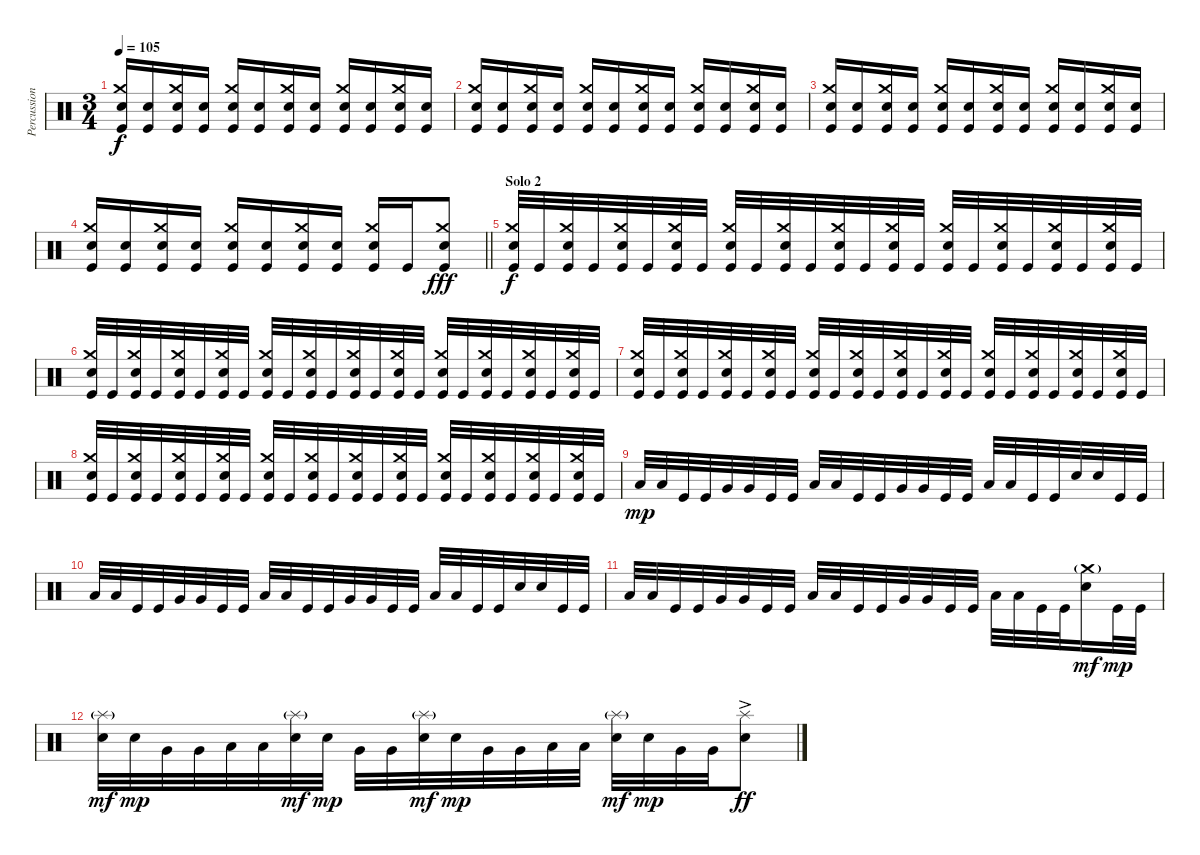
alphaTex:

\track ("Percussion" "Percussion") {instrument percussion}
\staff {score}
\articulation defaults
\ts (3 4)
\tempo 105
\clef neutral
\ks c
("Kick (hit)" "Crash medium (hit)" "Snare (hit) 2").16{dy f} ("Kick (hit)" "Snare (hit) 2").16 ("Kick (hit)" "Crash medium (hit)" "Snare (hit) 2").16 ("Kick (hit)" "Snare (hit) 2").16 ("Kick (hit)" "Crash medium (hit)" "Snare (hit) 2").16 ("Kick (hit)" "Snare (hit) 2").16 ("Kick (hit)" "Crash medium (hit)" "Snare (hit) 2").16 ("Kick (hit)" "Snare (hit) 2").16 ("Kick (hit)" "Crash medium (hit)" "Snare (hit) 2").16 ("Kick (hit)" "Snare (hit) 2").16 ("Kick (hit)" "Crash medium (hit)" "Snare (hit) 2").16 ("Kick (hit)" "Snare (hit) 2").16 |
("Kick (hit)" "Crash medium (hit)" "Snare (hit) 2").16 ("Kick (hit)" "Snare (hit) 2").16 ("Kick (hit)" "Crash medium (hit)" "Snare (hit) 2").16 ("Kick (hit)" "Snare (hit) 2").16 ("Kick (hit)" "Crash medium (hit)" "Snare (hit) 2").16 ("Kick (hit)" "Snare (hit) 2").16 ("Kick (hit)" "Crash medium (hit)" "Snare (hit) 2").16 ("Kick (hit)" "Snare (hit) 2").16 ("Kick (hit)" "Crash medium (hit)" "Snare (hit) 2").16 ("Kick (hit)" "Snare (hit) 2").16 ("Kick (hit)" "Crash medium (hit)" "Snare (hit) 2").16 ("Kick (hit)" "Snare (hit) 2").16 |
("Kick (hit)" "Crash medium (hit)" "Snare (hit) 2").16 ("Kick (hit)" "Snare (hit) 2").16 ("Kick (hit)" "Crash medium (hit)" "Snare (hit) 2").16 ("Kick (hit)" "Snare (hit) 2").16 ("Kick (hit)" "Crash medium (hit)" "Snare (hit) 2").16 ("Kick (hit)" "Snare (hit) 2").16 ("Kick (hit)" "Crash medium (hit)" "Snare (hit) 2").16 ("Kick (hit)" "Snare (hit) 2").16 ("Kick (hit)" "Crash medium (hit)" "Snare (hit) 2").16 ("Kick (hit)" "Snare (hit) 2").16 ("Kick (hit)" "Crash medium (hit)" "Snare (hit) 2").16 ("Kick (hit)" "Snare (hit) 2").16 |
\barLineRight lightlight
("Kick (hit)" "Crash medium (hit)" "Snare (hit) 2").16 ("Kick (hit)" "Snare (hit) 2").16 ("Kick (hit)" "Crash medium (hit)" "Snare (hit) 2").16 ("Kick (hit)" "Snare (hit) 2").16 ("Kick (hit)" "Crash medium (hit)" "Snare (hit) 2").16 ("Kick (hit)" "Snare (hit) 2").16 ("Kick (hit)" "Crash medium (hit)" "Snare (hit) 2").16 ("Kick (hit)" "Snare (hit) 2").16 ("Kick (hit)" "Crash medium (hit)" "Snare (hit) 2").16 "Kick (hit)".16 ("Kick (hit)" "Crash medium (hit)" "Snare (hit) 2").8{dy fff} |
\section ("" "Solo 2")
("Kick (hit)" "Snare (hit) 2" "Crash medium (hit)").32{dy f} "Kick (hit)".32 ("Kick (hit)" "Snare (hit) 2" "Crash medium (hit)").32 "Kick (hit)".32 ("Kick (hit)" "Snare (hit) 2" "Crash medium (hit)").32 "Kick (hit)".32 ("Kick (hit)" "Snare (hit) 2" "Crash medium (hit)").32 "Kick (hit)".32 ("Kick (hit)" "Snare (hit) 2" "Crash medium (hit)").32 "Kick (hit)".32 ("Kick (hit)" "Snare (hit) 2" "Crash medium (hit)").32 "Kick (hit)".32 ("Kick (hit)" "Snare (hit) 2" "Crash medium (hit)").32 "Kick (hit)".32 ("Kick (hit)" "Snare (hit) 2" "Crash medium (hit)").32 "Kick (hit)".32 ("Kick (hit)" "Snare (hit) 2" "Crash medium (hit)").32 "Kick (hit)".32 ("Kick (hit)" "Snare (hit) 2" "Crash medium (hit)").32 "Kick (hit)".32 ("Kick (hit)" "Snare (hit) 2" "Crash medium (hit)").32 "Kick (hit)".32 ("Kick (hit)" "Snare (hit) 2" "Crash medium (hit)").32 "Kick (hit)".32 |
("Kick (hit)" "Snare (hit) 2" "Crash medium (hit)").32 "Kick (hit)".32 ("Kick (hit)" "Snare (hit) 2" "Crash medium (hit)").32 "Kick (hit)".32 ("Kick (hit)" "Snare (hit) 2" "Crash medium (hit)").32 "Kick (hit)".32 ("Kick (hit)" "Snare (hit) 2" "Crash medium (hit)").32 "Kick (hit)".32 ("Kick (hit)" "Snare (hit) 2" "Crash medium (hit)").32 "Kick (hit)".32 ("Kick (hit)" "Snare (hit) 2" "Crash medium (hit)").32 "Kick (hit)".32 ("Kick (hit)" "Snare (hit) 2" "Crash medium (hit)").32 "Kick (hit)".32 ("Kick (hit)" "Snare (hit) 2" "Crash medium (hit)").32 "Kick (hit)".32 ("Kick (hit)" "Snare (hit) 2" "Crash medium (hit)").32 "Kick (hit)".32 ("Kick (hit)" "Snare (hit) 2" "Crash medium (hit)").32 "Kick (hit)".32 ("Kick (hit)" "Snare (hit) 2" "Crash medium (hit)").32 "Kick (hit)".32 ("Kick (hit)" "Snare (hit) 2" "Crash medium (hit)").32 "Kick (hit)".32 |
("Kick (hit)" "Snare (hit) 2" "Crash medium (hit)").32 "Kick (hit)".32 ("Kick (hit)" "Snare (hit) 2" "Crash medium (hit)").32 "Kick (hit)".32 ("Kick (hit)" "Snare (hit) 2" "Crash medium (hit)").32 "Kick (hit)".32 ("Kick (hit)" "Snare (hit) 2" "Crash medium (hit)").32 "Kick (hit)".32 ("Kick (hit)" "Snare (hit) 2" "Crash medium (hit)").32 "Kick (hit)".32 ("Kick (hit)" "Snare (hit) 2" "Crash medium (hit)").32 "Kick (hit)".32 ("Kick (hit)" "Snare (hit) 2" "Crash medium (hit)").32 "Kick (hit)".32 ("Kick (hit)" "Snare (hit) 2" "Crash medium (hit)").32 "Kick (hit)".32 ("Kick (hit)" "Snare (hit) 2" "Crash medium (hit)").32 "Kick (hit)".32 ("Kick (hit)" "Snare (hit) 2" "Crash medium (hit)").32 "Kick (hit)".32 ("Kick (hit)" "Snare (hit) 2" "Crash medium (hit)").32 "Kick (hit)".32 ("Kick (hit)" "Snare (hit) 2" "Crash medium (hit)").32 "Kick (hit)".32 |
("Kick (hit)" "Snare (hit) 2" "Crash medium (hit)").32 "Kick (hit)".32 ("Kick (hit)" "Snare (hit) 2" "Crash medium (hit)").32 "Kick (hit)".32 ("Kick (hit)" "Snare (hit) 2" "Crash medium (hit)").32 "Kick (hit)".32 ("Kick (hit)" "Snare (hit) 2" "Crash medium (hit)").32 "Kick (hit)".32 ("Kick (hit)" "Snare (hit) 2" "Crash medium (hit)").32 "Kick (hit)".32 ("Kick (hit)" "Snare (hit) 2" "Crash medium (hit)").32 "Kick (hit)".32 ("Kick (hit)" "Snare (hit) 2" "Crash medium (hit)").32 "Kick (hit)".32 ("Kick (hit)" "Snare (hit) 2" "Crash medium (hit)").32 "Kick (hit)".32 ("Kick (hit)" "Snare (hit) 2" "Crash medium (hit)").32 "Kick (hit)".32 ("Kick (hit)" "Snare (hit) 2" "Crash medium (hit)").32 "Kick (hit)".32 ("Kick (hit)" "Snare (hit) 2" "Crash medium (hit)").32 "Kick (hit)".32 ("Kick (hit)" "Snare (hit) 2" "Crash medium (hit)").32 "Kick (hit)".32 |
"Low Tom (hit)".32{dy mp volume 15} "Low Tom (hit)".32 "Kick (hit)".32 "Kick (hit)".32 "Very Low Tom (hit)".32 "Very Low Tom (hit)".32 "Kick (hit)".32 "Kick (hit)".32 "Low Floor Tom (hit)".32 "Low Floor Tom (hit)".32 "Kick (hit)".32 "Kick (hit)".32 "Very Low Tom (hit)".32 "Very Low Tom (hit)".32 "Kick (hit)".32 "Kick (hit)".32 "Low Tom (hit)".32 "Low Tom (hit)".32 "Kick (hit)".32 "Kick (hit)".32 "Snare (hit) 2".32 "Snare (hit) 2".32 "Kick (hit)".32 "Kick (hit)".32 |
"Low Tom (hit)".32 "Low Tom (hit)".32 "Kick (hit)".32 "Kick (hit)".32 "Very Low Tom (hit)".32 "Very Low Tom (hit)".32 "Kick (hit)".32 "Kick (hit)".32 "Low Floor Tom (hit)".32 "Low Floor Tom (hit)".32 "Kick (hit)".32 "Kick (hit)".32 "Very Low Tom (hit)".32 "Very Low Tom (hit)".32 "Kick (hit)".32 "Kick (hit)".32 "Low Tom (hit)".32 "Low Tom (hit)".32 "Kick (hit)".32 "Kick (hit)".32 "Snare (hit) 2".32 "Snare (hit) 2".32 "Kick (hit)".32 "Kick (hit)".32 |
"Low Tom (hit)".32 "Low Tom (hit)".32 "Kick (hit)".32 "Kick (hit)".32 "Very Low Tom (hit)".32 "Very Low Tom (hit)".32 "Kick (hit)".32 "Kick (hit)".32 "Low Floor Tom (hit)".32 "Low Floor Tom (hit)".32 "Kick (hit)".32 "Kick (hit)".32 "Very Low Tom (hit)".32 "Very Low Tom (hit)".32 "Kick (hit)".32 "Kick (hit)".32 "Low Tom (hit)".32 "Low Tom (hit)".32 "Kick (hit)".32 "Kick (hit)".32 ("Snare (hit) 2" "Crash medium (hit)"{g}).16{dy mf} "Kick (hit)".32{dy mp} "Kick (hit)".32 |
("Snare (hit) 2" "Splash (hit)"{g}).32{dy mf} "Snare (hit) 2".32{dy mp} "Very Low Tom (hit)".32 "Very Low Tom (hit)".32 "Low Floor Tom (hit)".32 "Low Floor Tom (hit)".32 ("Snare (hit) 2" "Splash (hit)"{g}).32{dy mf} "Snare (hit) 2".32{dy mp} "Very Low Tom (hit)".32 "Very Low Tom (hit)".32 ("Snare (hit) 2" "Splash (hit)"{g}).32{dy mf} "Snare (hit) 2".32{dy mp} "Very Low Tom (hit)".32 "Very Low Tom (hit)".32 "Low Floor Tom (hit)".32 "Low Floor Tom (hit)".32 ("Snare (hit) 2" "Splash (hit)"{g}).32{dy mf} "Snare (hit) 2".32{dy mp} "Very Low Tom (hit)".32 "Very Low Tom (hit)".32 ("Snare (hit) 2"{ac} "Splash (hit)").8{dy ff}
